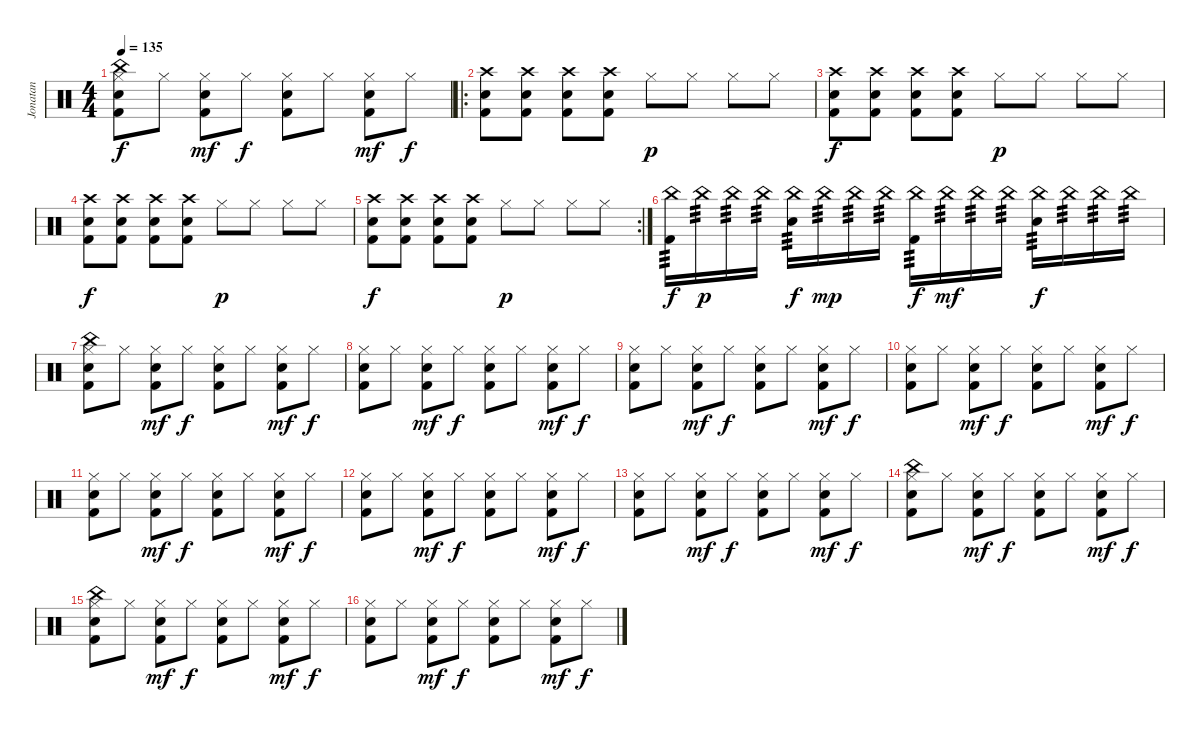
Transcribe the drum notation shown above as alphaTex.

\track ("Jonatan" "Jonatan") {instrument percussion}
\staff {score}
\articulation defaults
\ts (4 4)
\tempo 135
\clef neutral
\ks c
("China (hit)" "Hi-Hat (closed)" "Electric Snare (hit)" "Kick (hit) 2").8{dy f} "Hi-Hat (closed)".8 ("Hi-Hat (closed)" "Electric Snare (hit)" "Kick (hit) 2").8{dy mf} "Hi-Hat (closed)".8{dy f} ("Hi-Hat (closed)" "Electric Snare (hit)" "Kick (hit) 2").8 "Hi-Hat (closed)".8 ("Hi-Hat (closed)" "Electric Snare (hit)" "Kick (hit) 2").8{dy mf} "Hi-Hat (closed)".8{dy f} |
\ro
("Crash high (hit)" "Electric Snare (hit)" "Kick (hit) 2").8 ("Crash high (hit)" "Electric Snare (hit)" "Kick (hit) 2").8 ("Crash high (hit)" "Electric Snare (hit)" "Kick (hit) 2").8 ("Crash high (hit)" "Electric Snare (hit)" "Kick (hit) 2").8 "Hi-Hat (closed)".8{dy p} "Hi-Hat (closed)".8 "Hi-Hat (closed)".8 "Hi-Hat (closed)".8 |
("Crash high (hit)" "Electric Snare (hit)" "Kick (hit) 2").8{dy f} ("Crash high (hit)" "Electric Snare (hit)" "Kick (hit) 2").8 ("Crash high (hit)" "Electric Snare (hit)" "Kick (hit) 2").8 ("Crash high (hit)" "Electric Snare (hit)" "Kick (hit) 2").8 "Hi-Hat (closed)".8{dy p} "Hi-Hat (closed)".8 "Hi-Hat (closed)".8 "Hi-Hat (closed)".8 |
("Crash high (hit)" "Electric Snare (hit)" "Kick (hit) 2").8{dy f} ("Crash high (hit)" "Electric Snare (hit)" "Kick (hit) 2").8 ("Crash high (hit)" "Electric Snare (hit)" "Kick (hit) 2").8 ("Crash high (hit)" "Electric Snare (hit)" "Kick (hit) 2").8 "Hi-Hat (closed)".8{dy p} "Hi-Hat (closed)".8 "Hi-Hat (closed)".8 "Hi-Hat (closed)".8 |
\rc 2
("Crash high (hit)" "Electric Snare (hit)" "Kick (hit) 2").8{dy f} ("Crash high (hit)" "Electric Snare (hit)" "Kick (hit) 2").8 ("Crash high (hit)" "Electric Snare (hit)" "Kick (hit) 2").8 ("Crash high (hit)" "Electric Snare (hit)" "Kick (hit) 2").8 "Hi-Hat (closed)".8{dy p} "Hi-Hat (closed)".8 "Hi-Hat (closed)".8 "Hi-Hat (closed)".8 |
("China (hit)" "Kick (hit) 2").16{tp 3 dy f} "China (hit)".16{tp 3 dy p} "China (hit)".16{tp 3} "China (hit)".16{tp 3} ("China (hit)" "Electric Snare (hit)").16{tp 3 dy f} "China (hit)".16{tp 3 dy mp} "China (hit)".16{tp 3} "China (hit)".16{tp 3} ("China (hit)" "Kick (hit) 2").16{tp 3 dy f} "China (hit)".16{tp 3 dy mf} "China (hit)".16{tp 3} "China (hit)".16{tp 3} ("China (hit)" "Electric Snare (hit)").16{tp 3 dy f} "China (hit)".16{tp 3} "China (hit)".16{tp 3} "China (hit)".16{tp 3} |
("China (hit)" "Hi-Hat (closed)" "Electric Snare (hit)" "Kick (hit) 2").8 "Hi-Hat (closed)".8 ("Hi-Hat (closed)" "Electric Snare (hit)" "Kick (hit) 2").8{dy mf} "Hi-Hat (closed)".8{dy f} ("Hi-Hat (closed)" "Electric Snare (hit)" "Kick (hit) 2").8 "Hi-Hat (closed)".8 ("Hi-Hat (closed)" "Electric Snare (hit)" "Kick (hit) 2").8{dy mf} "Hi-Hat (closed)".8{dy f} |
("Hi-Hat (closed)" "Electric Snare (hit)" "Kick (hit) 2").8 "Hi-Hat (closed)".8 ("Hi-Hat (closed)" "Electric Snare (hit)" "Kick (hit) 2").8{dy mf} "Hi-Hat (closed)".8{dy f} ("Hi-Hat (closed)" "Electric Snare (hit)" "Kick (hit) 2").8 "Hi-Hat (closed)".8 ("Hi-Hat (closed)" "Electric Snare (hit)" "Kick (hit) 2").8{dy mf} "Hi-Hat (closed)".8{dy f} |
("Hi-Hat (closed)" "Electric Snare (hit)" "Kick (hit) 2").8 "Hi-Hat (closed)".8 ("Hi-Hat (closed)" "Electric Snare (hit)" "Kick (hit) 2").8{dy mf} "Hi-Hat (closed)".8{dy f} ("Hi-Hat (closed)" "Electric Snare (hit)" "Kick (hit) 2").8 "Hi-Hat (closed)".8 ("Hi-Hat (closed)" "Electric Snare (hit)" "Kick (hit) 2").8{dy mf} "Hi-Hat (closed)".8{dy f} |
("Hi-Hat (closed)" "Electric Snare (hit)" "Kick (hit) 2").8 "Hi-Hat (closed)".8 ("Hi-Hat (closed)" "Electric Snare (hit)" "Kick (hit) 2").8{dy mf} "Hi-Hat (closed)".8{dy f} ("Hi-Hat (closed)" "Electric Snare (hit)" "Kick (hit) 2").8 "Hi-Hat (closed)".8 ("Hi-Hat (closed)" "Electric Snare (hit)" "Kick (hit) 2").8{dy mf} "Hi-Hat (closed)".8{dy f} |
("Hi-Hat (closed)" "Electric Snare (hit)" "Kick (hit) 2").8 "Hi-Hat (closed)".8 ("Hi-Hat (closed)" "Electric Snare (hit)" "Kick (hit) 2").8{dy mf} "Hi-Hat (closed)".8{dy f} ("Hi-Hat (closed)" "Electric Snare (hit)" "Kick (hit) 2").8 "Hi-Hat (closed)".8 ("Hi-Hat (closed)" "Electric Snare (hit)" "Kick (hit) 2").8{dy mf} "Hi-Hat (closed)".8{dy f} |
("Hi-Hat (closed)" "Electric Snare (hit)" "Kick (hit) 2").8 "Hi-Hat (closed)".8 ("Hi-Hat (closed)" "Electric Snare (hit)" "Kick (hit) 2").8{dy mf} "Hi-Hat (closed)".8{dy f} ("Hi-Hat (closed)" "Electric Snare (hit)" "Kick (hit) 2").8 "Hi-Hat (closed)".8 ("Hi-Hat (closed)" "Electric Snare (hit)" "Kick (hit) 2").8{dy mf} "Hi-Hat (closed)".8{dy f} |
("Hi-Hat (closed)" "Electric Snare (hit)" "Kick (hit) 2").8 "Hi-Hat (closed)".8 ("Hi-Hat (closed)" "Electric Snare (hit)" "Kick (hit) 2").8{dy mf} "Hi-Hat (closed)".8{dy f} ("Hi-Hat (closed)" "Electric Snare (hit)" "Kick (hit) 2").8 "Hi-Hat (closed)".8 ("Hi-Hat (closed)" "Electric Snare (hit)" "Kick (hit) 2").8{dy mf} "Hi-Hat (closed)".8{dy f} |
("China (hit)" "Hi-Hat (closed)" "Electric Snare (hit)" "Kick (hit) 2").8 "Hi-Hat (closed)".8 ("Hi-Hat (closed)" "Electric Snare (hit)" "Kick (hit) 2").8{dy mf} "Hi-Hat (closed)".8{dy f} ("Hi-Hat (closed)" "Electric Snare (hit)" "Kick (hit) 2").8 "Hi-Hat (closed)".8 ("Hi-Hat (closed)" "Electric Snare (hit)" "Kick (hit) 2").8{dy mf} "Hi-Hat (closed)".8{dy f} |
("China (hit)" "Hi-Hat (closed)" "Electric Snare (hit)" "Kick (hit) 2").8 "Hi-Hat (closed)".8 ("Hi-Hat (closed)" "Electric Snare (hit)" "Kick (hit) 2").8{dy mf} "Hi-Hat (closed)".8{dy f} ("Hi-Hat (closed)" "Electric Snare (hit)" "Kick (hit) 2").8 "Hi-Hat (closed)".8 ("Hi-Hat (closed)" "Electric Snare (hit)" "Kick (hit) 2").8{dy mf} "Hi-Hat (closed)".8{dy f} |
("Hi-Hat (closed)" "Electric Snare (hit)" "Kick (hit) 2").8 "Hi-Hat (closed)".8 ("Hi-Hat (closed)" "Electric Snare (hit)" "Kick (hit) 2").8{dy mf} "Hi-Hat (closed)".8{dy f} ("Hi-Hat (closed)" "Electric Snare (hit)" "Kick (hit) 2").8 "Hi-Hat (closed)".8 ("Hi-Hat (closed)" "Electric Snare (hit)" "Kick (hit) 2").8{dy mf} "Hi-Hat (closed)".8{dy f}
